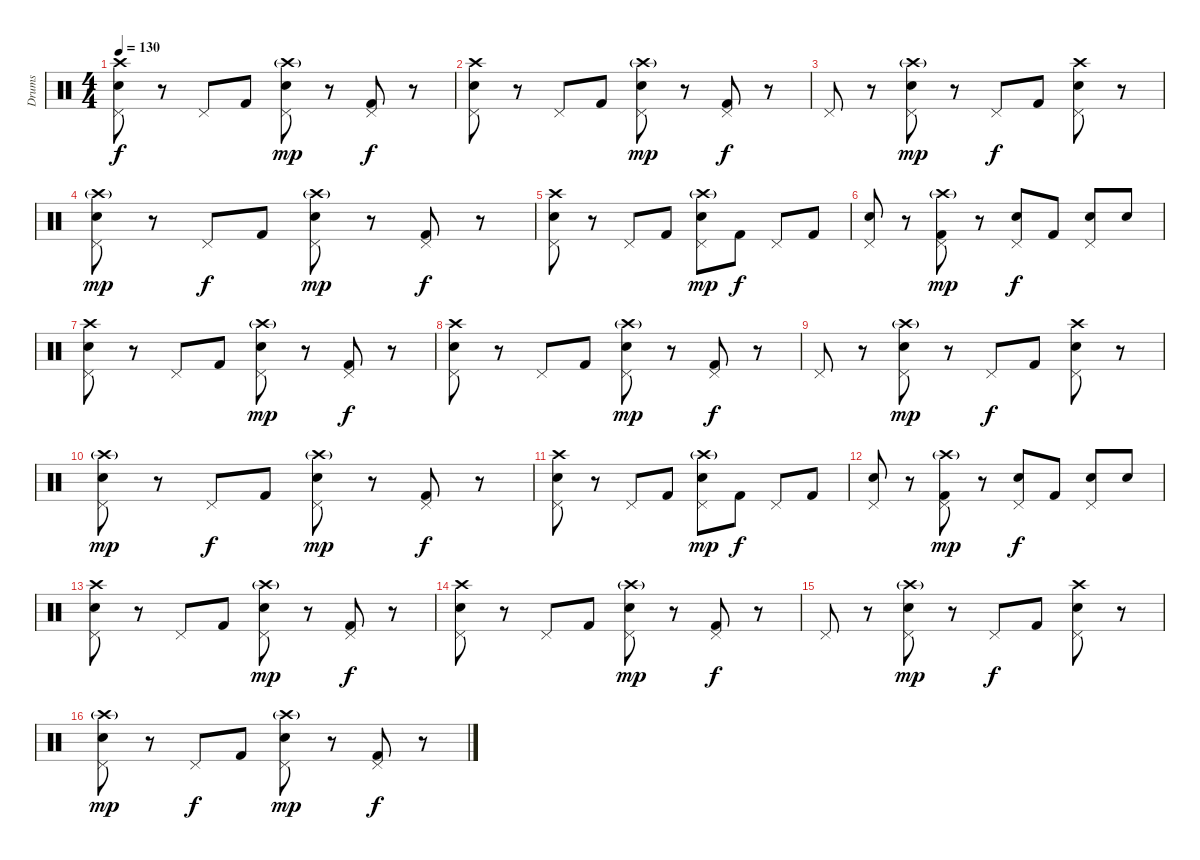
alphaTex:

\track ("Drums" "Drums") {instrument percussion}
\staff {score}
\articulation defaults
\ts (4 4)
\tempo 130
\clef neutral
\ks c
("Crash high (hit)" "Snare (hit) 2" "Pedal Hi-Hat (hit)").8{dy f} r.8 "Pedal Hi-Hat (hit)".8 "Kick (hit) 2".8 ("Crash high (hit)"{g} "Snare (hit) 2" "Pedal Hi-Hat (hit)").8{dy mp} r.8 ("Pedal Hi-Hat (hit)" "Kick (hit) 2").8{dy f} r.8 |
("Crash high (hit)" "Snare (hit) 2" "Pedal Hi-Hat (hit)").8 r.8 "Pedal Hi-Hat (hit)".8 "Kick (hit) 2".8 ("Crash high (hit)"{g} "Snare (hit) 2" "Pedal Hi-Hat (hit)").8{dy mp} r.8 ("Pedal Hi-Hat (hit)" "Kick (hit) 2").8{dy f} r.8 |
"Pedal Hi-Hat (hit)".8 r.8 ("Crash high (hit)"{g} "Snare (hit) 2" "Pedal Hi-Hat (hit)").8{dy mp} r.8 "Pedal Hi-Hat (hit)".8{dy f} "Kick (hit) 2".8 ("Crash high (hit)" "Snare (hit) 2" "Pedal Hi-Hat (hit)").8 r.8 |
("Crash high (hit)"{g} "Snare (hit) 2" "Pedal Hi-Hat (hit)").8{dy mp} r.8 "Pedal Hi-Hat (hit)".8{dy f} "Kick (hit) 2".8 ("Crash high (hit)"{g} "Snare (hit) 2" "Pedal Hi-Hat (hit)").8{dy mp} r.8 ("Pedal Hi-Hat (hit)" "Kick (hit) 2").8{dy f} r.8 |
("Crash high (hit)" "Snare (hit) 2" "Pedal Hi-Hat (hit)").8 r.8 "Pedal Hi-Hat (hit)".8 "Kick (hit) 2".8 ("Crash high (hit)"{g} "Snare (hit) 2" "Pedal Hi-Hat (hit)").8{dy mp} "Kick (hit) 2".8{dy f} "Pedal Hi-Hat (hit)".8 "Kick (hit) 2".8 |
("Snare (hit) 2" "Pedal Hi-Hat (hit)").8 r.8 ("Crash high (hit)"{g} "Pedal Hi-Hat (hit)" "Kick (hit) 2").8{dy mp} r.8 ("Snare (hit) 2" "Pedal Hi-Hat (hit)").8{dy f} "Kick (hit) 2".8 ("Snare (hit) 2" "Pedal Hi-Hat (hit)").8 "Snare (hit) 2".8 |
("Crash high (hit)" "Snare (hit) 2" "Pedal Hi-Hat (hit)").8 r.8 "Pedal Hi-Hat (hit)".8 "Kick (hit) 2".8 ("Crash high (hit)"{g} "Snare (hit) 2" "Pedal Hi-Hat (hit)").8{dy mp} r.8 ("Pedal Hi-Hat (hit)" "Kick (hit) 2").8{dy f} r.8 |
("Crash high (hit)" "Snare (hit) 2" "Pedal Hi-Hat (hit)").8 r.8 "Pedal Hi-Hat (hit)".8 "Kick (hit) 2".8 ("Crash high (hit)"{g} "Snare (hit) 2" "Pedal Hi-Hat (hit)").8{dy mp} r.8 ("Pedal Hi-Hat (hit)" "Kick (hit) 2").8{dy f} r.8 |
"Pedal Hi-Hat (hit)".8 r.8 ("Crash high (hit)"{g} "Snare (hit) 2" "Pedal Hi-Hat (hit)").8{dy mp} r.8 "Pedal Hi-Hat (hit)".8{dy f} "Kick (hit) 2".8 ("Crash high (hit)" "Snare (hit) 2" "Pedal Hi-Hat (hit)").8 r.8 |
("Crash high (hit)"{g} "Snare (hit) 2" "Pedal Hi-Hat (hit)").8{dy mp} r.8 "Pedal Hi-Hat (hit)".8{dy f} "Kick (hit) 2".8 ("Crash high (hit)"{g} "Snare (hit) 2" "Pedal Hi-Hat (hit)").8{dy mp} r.8 ("Pedal Hi-Hat (hit)" "Kick (hit) 2").8{dy f} r.8 |
("Crash high (hit)" "Snare (hit) 2" "Pedal Hi-Hat (hit)").8 r.8 "Pedal Hi-Hat (hit)".8 "Kick (hit) 2".8 ("Crash high (hit)"{g} "Snare (hit) 2" "Pedal Hi-Hat (hit)").8{dy mp} "Kick (hit) 2".8{dy f} "Pedal Hi-Hat (hit)".8 "Kick (hit) 2".8 |
("Snare (hit) 2" "Pedal Hi-Hat (hit)").8 r.8 ("Crash high (hit)"{g} "Pedal Hi-Hat (hit)" "Kick (hit) 2").8{dy mp} r.8 ("Snare (hit) 2" "Pedal Hi-Hat (hit)").8{dy f} "Kick (hit) 2".8 ("Snare (hit) 2" "Pedal Hi-Hat (hit)").8 "Snare (hit) 2".8 |
("Crash high (hit)" "Snare (hit) 2" "Pedal Hi-Hat (hit)").8 r.8 "Pedal Hi-Hat (hit)".8 "Kick (hit) 2".8 ("Crash high (hit)"{g} "Snare (hit) 2" "Pedal Hi-Hat (hit)").8{dy mp} r.8 ("Pedal Hi-Hat (hit)" "Kick (hit) 2").8{dy f} r.8 |
("Crash high (hit)" "Snare (hit) 2" "Pedal Hi-Hat (hit)").8 r.8 "Pedal Hi-Hat (hit)".8 "Kick (hit) 2".8 ("Crash high (hit)"{g} "Snare (hit) 2" "Pedal Hi-Hat (hit)").8{dy mp} r.8 ("Pedal Hi-Hat (hit)" "Kick (hit) 2").8{dy f} r.8 |
"Pedal Hi-Hat (hit)".8 r.8 ("Crash high (hit)"{g} "Snare (hit) 2" "Pedal Hi-Hat (hit)").8{dy mp} r.8 "Pedal Hi-Hat (hit)".8{dy f} "Kick (hit) 2".8 ("Crash high (hit)" "Snare (hit) 2" "Pedal Hi-Hat (hit)").8 r.8 |
("Crash high (hit)"{g} "Snare (hit) 2" "Pedal Hi-Hat (hit)").8{dy mp} r.8 "Pedal Hi-Hat (hit)".8{dy f} "Kick (hit) 2".8 ("Crash high (hit)"{g} "Snare (hit) 2" "Pedal Hi-Hat (hit)").8{dy mp} r.8 ("Pedal Hi-Hat (hit)" "Kick (hit) 2").8{dy f} r.8
